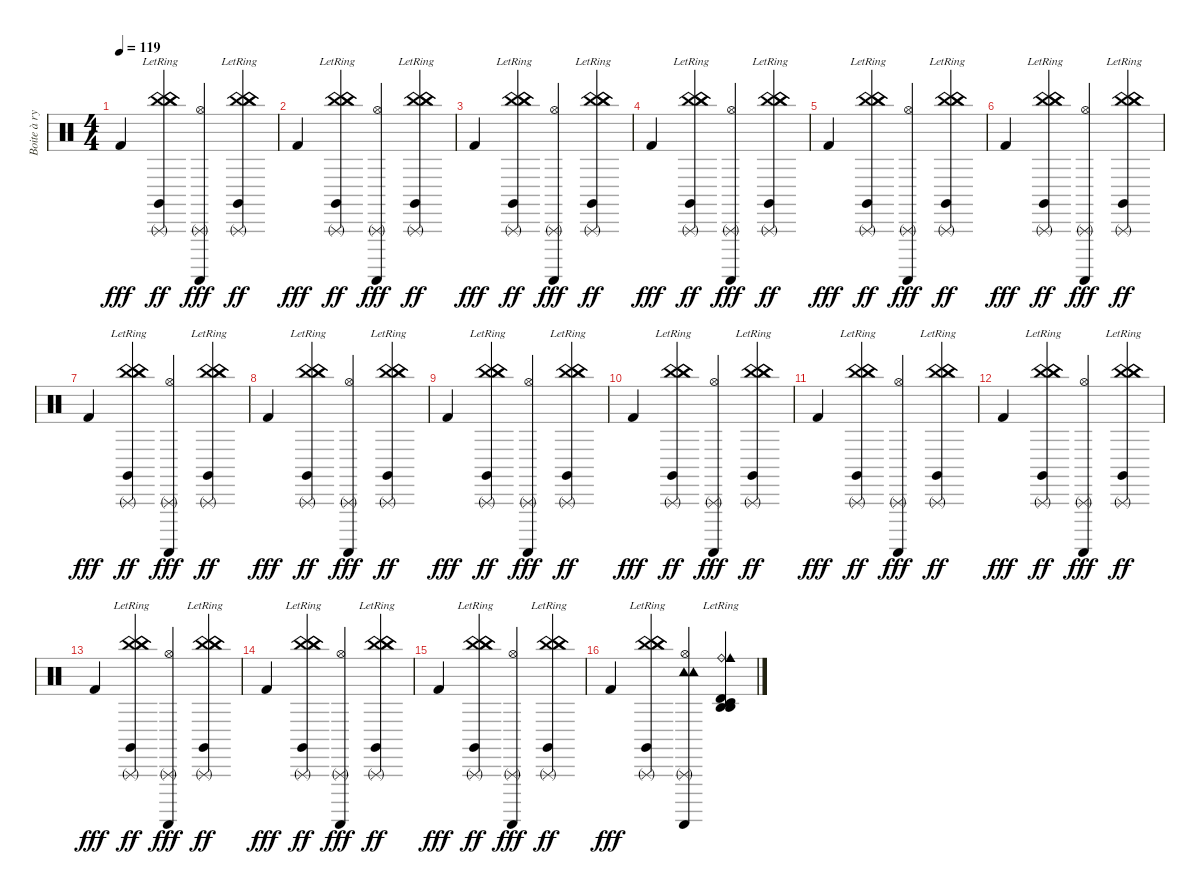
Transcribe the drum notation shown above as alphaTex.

\track ("Boite à rythme" "Boite à ry") {instrument percussion}
\staff {score}
\articulation defaults
\ts (4 4)
\tempo 119
\clef neutral
\ks c "Kick (hit) 2".4{dy fff}
("China (hit)" "China (hit)" "Triangle (rnute)" "Claves (hit)" "China (hit)"{lr}).4{dy ff} ("Hi-Hat (open)" "Triangle (rnute)" "Guiro (scrap-return)").4{dy fff} ("China (hit)" "China (hit)"{lr} "Triangle (rnute)" "Claves (hit)" "China (hit)").4{dy ff} |
"Kick (hit) 2".4{dy fff} ("China (hit)" "China (hit)" "Triangle (rnute)" "Claves (hit)" "China (hit)"{lr}).4{dy ff} ("Hi-Hat (open)" "Triangle (rnute)" "Guiro (scrap-return)").4{dy fff} ("China (hit)" "China (hit)"{lr} "Triangle (rnute)" "Claves (hit)" "China (hit)").4{dy ff} |
"Kick (hit) 2".4{dy fff} ("China (hit)" "China (hit)" "Triangle (rnute)" "Claves (hit)" "China (hit)"{lr}).4{dy ff} ("Hi-Hat (open)" "Triangle (rnute)" "Guiro (scrap-return)").4{dy fff} ("China (hit)" "China (hit)"{lr} "Triangle (rnute)" "Claves (hit)" "China (hit)").4{dy ff} |
"Kick (hit) 2".4{dy fff} ("China (hit)" "China (hit)" "Triangle (rnute)" "Claves (hit)" "China (hit)"{lr}).4{dy ff} ("Hi-Hat (open)" "Triangle (rnute)" "Guiro (scrap-return)").4{dy fff} ("China (hit)" "China (hit)"{lr} "Triangle (rnute)" "Claves (hit)" "China (hit)").4{dy ff} |
"Kick (hit) 2".4{dy fff} ("China (hit)" "China (hit)" "Triangle (rnute)" "Claves (hit)" "China (hit)"{lr}).4{dy ff} ("Hi-Hat (open)" "Triangle (rnute)" "Guiro (scrap-return)").4{dy fff} ("China (hit)" "China (hit)"{lr} "Triangle (rnute)" "Claves (hit)" "China (hit)").4{dy ff} |
"Kick (hit) 2".4{dy fff} ("China (hit)" "China (hit)" "Triangle (rnute)" "Claves (hit)" "China (hit)"{lr}).4{dy ff} ("Hi-Hat (open)" "Triangle (rnute)" "Guiro (scrap-return)").4{dy fff} ("China (hit)" "China (hit)"{lr} "Triangle (rnute)" "Claves (hit)" "China (hit)").4{dy ff} |
"Kick (hit) 2".4{dy fff} ("China (hit)" "China (hit)" "Triangle (rnute)" "Claves (hit)" "China (hit)"{lr}).4{dy ff} ("Hi-Hat (open)" "Triangle (rnute)" "Guiro (scrap-return)").4{dy fff} ("China (hit)" "China (hit)"{lr} "Triangle (rnute)" "Claves (hit)" "China (hit)").4{dy ff} |
"Kick (hit) 2".4{dy fff} ("China (hit)" "China (hit)" "Triangle (rnute)" "Claves (hit)" "China (hit)"{lr}).4{dy ff} ("Hi-Hat (open)" "Triangle (rnute)" "Guiro (scrap-return)").4{dy fff} ("China (hit)" "China (hit)"{lr} "Triangle (rnute)" "Claves (hit)" "China (hit)").4{dy ff} |
"Kick (hit) 2".4{dy fff} ("China (hit)" "China (hit)" "Triangle (rnute)" "Claves (hit)" "China (hit)"{lr}).4{dy ff} ("Hi-Hat (open)" "Triangle (rnute)" "Guiro (scrap-return)").4{dy fff} ("China (hit)" "China (hit)"{lr} "Triangle (rnute)" "Claves (hit)" "China (hit)").4{dy ff} |
"Kick (hit) 2".4{dy fff} ("China (hit)" "China (hit)" "Triangle (rnute)" "Claves (hit)" "China (hit)"{lr}).4{dy ff} ("Hi-Hat (open)" "Triangle (rnute)" "Guiro (scrap-return)").4{dy fff} ("China (hit)" "China (hit)"{lr} "Triangle (rnute)" "Claves (hit)" "China (hit)").4{dy ff} |
"Kick (hit) 2".4{dy fff} ("China (hit)" "China (hit)" "Triangle (rnute)" "Claves (hit)" "China (hit)"{lr}).4{dy ff} ("Hi-Hat (open)" "Triangle (rnute)" "Guiro (scrap-return)").4{dy fff} ("China (hit)" "China (hit)"{lr} "Triangle (rnute)" "Claves (hit)" "China (hit)").4{dy ff} |
"Kick (hit) 2".4{dy fff volume 13} ("China (hit)" "China (hit)" "Triangle (rnute)" "Claves (hit)" "China (hit)"{lr}).4{dy ff} ("Hi-Hat (open)" "Triangle (rnute)" "Guiro (scrap-return)").4{dy fff} ("China (hit)" "China (hit)"{lr} "Triangle (rnute)" "Claves (hit)" "China (hit)").4{dy ff} |
"Kick (hit) 2".4{dy fff} ("China (hit)" "China (hit)" "Triangle (rnute)" "Claves (hit)" "China (hit)"{lr}).4{dy ff} ("Hi-Hat (open)" "Triangle (rnute)" "Guiro (scrap-return)").4{dy fff} ("China (hit)" "China (hit)"{lr} "Triangle (rnute)" "Claves (hit)" "China (hit)").4{dy ff} |
"Kick (hit) 2".4{dy fff} ("China (hit)" "China (hit)" "Triangle (rnute)" "Claves (hit)" "China (hit)"{lr}).4{dy ff} ("Hi-Hat (open)" "Triangle (rnute)" "Guiro (scrap-return)").4{dy fff} ("China (hit)" "China (hit)"{lr} "Triangle (rnute)" "Claves (hit)" "China (hit)").4{dy ff} |
"Kick (hit) 2".4{dy fff} ("China (hit)" "China (hit)" "Triangle (rnute)" "Claves (hit)" "China (hit)"{lr}).4{dy ff} ("Hi-Hat (open)" "Triangle (rnute)" "Guiro (scrap-return)").4{dy fff} ("China (hit)" "China (hit)"{lr} "Triangle (rnute)" "Claves (hit)" "China (hit)").4{dy ff} |
"Kick (hit) 2".4{dy fff} ("China (hit)" "China (hit)" "Triangle (rnute)" "Claves (hit)" "China (hit)"{lr}).4 ("Hi-Hat (open)" "Tambourine (hit)" "Triangle (rnute)" "Guiro (scrap-return)" "Tambourine (hit)").4 ("Ride (bell)" "Agogo high (hit)"{lr} "Timbale high (hit)" "Agogo high (hit)" "Cowbell medium (hit)" "Timbale low (hit)").4
